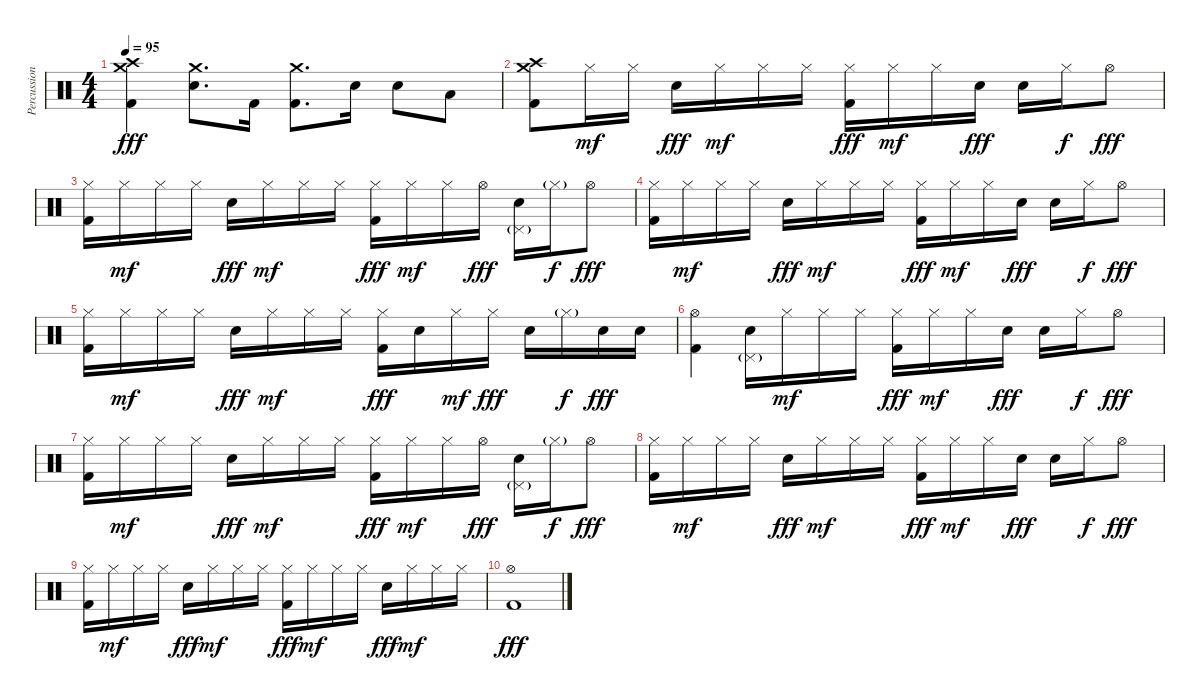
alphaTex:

\track ("Percussion" "Percussion") {instrument percussion}
\staff {score}
\articulation defaults
\ts (4 4)
\tempo 95
\clef neutral
\ks c
("Crash high (hit)" "Crash medium (hit)" "Kick (hit) 2").4{dy fff} ("Crash medium (hit)" "Electric Snare (hit)").8{d} "Kick (hit) 2".16 ("Crash medium (hit)" "Kick (hit) 2").8{d} "Electric Snare (hit)".16 "Electric Snare (hit)".8 "Low Tom (hit)".8 |
("Crash high (hit)" "Crash medium (hit)" "Kick (hit) 2").8 "Hi-Hat (closed)".16{dy mf} "Hi-Hat (closed)".16 "Electric Snare (hit)".16{dy fff} "Hi-Hat (closed)".16{dy mf} "Hi-Hat (closed)".16 "Hi-Hat (closed)".16 ("Hi-Hat (closed)" "Kick (hit) 2").16{dy fff} "Hi-Hat (closed)".16{dy mf} "Hi-Hat (closed)".16 "Electric Snare (hit)".16{dy fff} "Electric Snare (hit)".16 "Hi-Hat (closed)".16{dy f} "Hi-Hat (open)".8{dy fff} |
("Hi-Hat (closed)" "Kick (hit) 2").16 "Hi-Hat (closed)".16{dy mf} "Hi-Hat (closed)".16 "Hi-Hat (closed)".16 "Electric Snare (hit)".16{dy fff} "Hi-Hat (closed)".16{dy mf} "Hi-Hat (closed)".16 "Hi-Hat (closed)".16 ("Hi-Hat (closed)" "Kick (hit) 2").16{dy fff} "Hi-Hat (closed)".16{dy mf} "Hi-Hat (closed)".16 "Hi-Hat (open)".16{dy fff} ("Pedal Hi-Hat (hit)"{g} "Electric Snare (hit)").16 "Hi-Hat (closed)"{g}.16{dy f} "Hi-Hat (open)".8{dy fff} |
("Hi-Hat (closed)" "Kick (hit) 2").16 "Hi-Hat (closed)".16{dy mf} "Hi-Hat (closed)".16 "Hi-Hat (closed)".16 "Electric Snare (hit)".16{dy fff} "Hi-Hat (closed)".16{dy mf} "Hi-Hat (closed)".16 "Hi-Hat (closed)".16 ("Hi-Hat (closed)" "Kick (hit) 2").16{dy fff} "Hi-Hat (closed)".16{dy mf} "Hi-Hat (closed)".16 "Electric Snare (hit)".16{dy fff} "Electric Snare (hit)".16 "Hi-Hat (closed)".16{dy f} "Hi-Hat (open)".8{dy fff} |
("Hi-Hat (closed)" "Kick (hit) 2").16 "Hi-Hat (closed)".16{dy mf} "Hi-Hat (closed)".16 "Hi-Hat (closed)".16 "Electric Snare (hit)".16{dy fff} "Hi-Hat (closed)".16{dy mf} "Hi-Hat (closed)".16 "Hi-Hat (closed)".16 ("Hi-Hat (closed)" "Kick (hit) 2").16{dy fff} "Electric Snare (hit)".16 "Hi-Hat (closed)".16{dy mf} "Hi-Hat (closed)".16{dy fff} "Electric Snare (hit)".16 "Hi-Hat (closed)"{g}.16{dy f} "Electric Snare (hit)".16{dy fff} "Electric Snare (hit)".16 |
("Hi-Hat (open)" "Kick (hit) 2").4 ("Pedal Hi-Hat (hit)"{g} "Electric Snare (hit)").16 "Hi-Hat (closed)".16{dy mf} "Hi-Hat (closed)".16 "Hi-Hat (closed)".16 ("Hi-Hat (closed)" "Kick (hit) 2").16{dy fff} "Hi-Hat (closed)".16{dy mf} "Hi-Hat (closed)".16 "Electric Snare (hit)".16{dy fff} "Electric Snare (hit)".16 "Hi-Hat (closed)".16{dy f} "Hi-Hat (open)".8{dy fff} |
("Hi-Hat (closed)" "Kick (hit) 2").16 "Hi-Hat (closed)".16{dy mf} "Hi-Hat (closed)".16 "Hi-Hat (closed)".16 "Electric Snare (hit)".16{dy fff} "Hi-Hat (closed)".16{dy mf} "Hi-Hat (closed)".16 "Hi-Hat (closed)".16 ("Hi-Hat (closed)" "Kick (hit) 2").16{dy fff} "Hi-Hat (closed)".16{dy mf} "Hi-Hat (closed)".16 "Hi-Hat (open)".16{dy fff} ("Pedal Hi-Hat (hit)"{g} "Electric Snare (hit)").16 "Hi-Hat (closed)"{g}.16{dy f} "Hi-Hat (open)".8{dy fff} |
("Hi-Hat (closed)" "Kick (hit) 2").16 "Hi-Hat (closed)".16{dy mf} "Hi-Hat (closed)".16 "Hi-Hat (closed)".16 "Electric Snare (hit)".16{dy fff} "Hi-Hat (closed)".16{dy mf} "Hi-Hat (closed)".16 "Hi-Hat (closed)".16 ("Hi-Hat (closed)" "Kick (hit) 2").16{dy fff} "Hi-Hat (closed)".16{dy mf} "Hi-Hat (closed)".16 "Electric Snare (hit)".16{dy fff} "Electric Snare (hit)".16 "Hi-Hat (closed)".16{dy f} "Hi-Hat (open)".8{dy fff} |
("Hi-Hat (closed)" "Kick (hit) 2").16 "Hi-Hat (closed)".16{dy mf} "Hi-Hat (closed)".16 "Hi-Hat (closed)".16 "Electric Snare (hit)".16{dy fff} "Hi-Hat (closed)".16{dy mf} "Hi-Hat (closed)".16 "Hi-Hat (closed)".16 ("Hi-Hat (closed)" "Kick (hit) 2").16{dy fff} "Hi-Hat (closed)".16{dy mf} "Hi-Hat (closed)".16 "Hi-Hat (closed)".16 "Electric Snare (hit)".16{dy fff} "Hi-Hat (closed)".16{dy mf} "Hi-Hat (closed)".16 "Hi-Hat (closed)".16 |
("Hi-Hat (open)" "Kick (hit) 2").1{dy fff}
